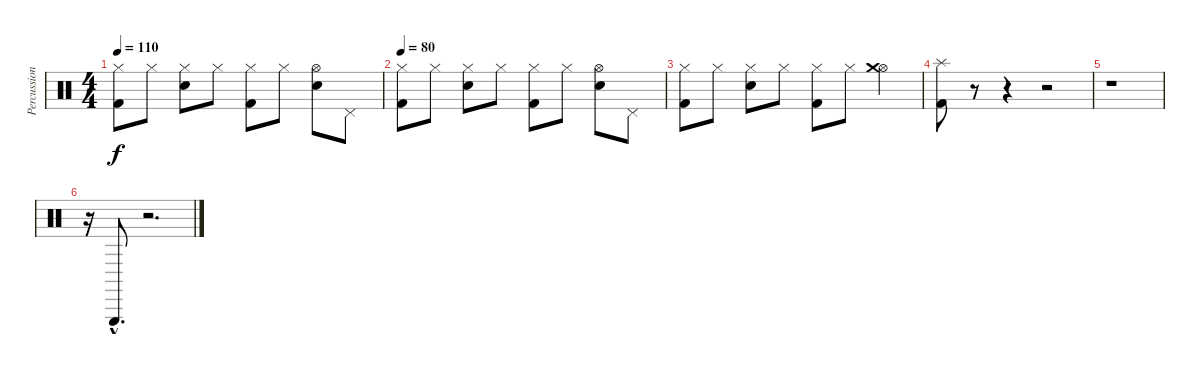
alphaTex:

\track ("Percussion" "Percussion") {instrument percussion}
\staff {score}
\articulation defaults
\ts (4 4)
\tempo 110
\clef neutral
\ks c
("Hi-Hat (closed)" "Kick (hit) 2").8{dy f} "Hi-Hat (closed)".8 ("Hi-Hat (closed)" "Snare (hit) 2").8 "Hi-Hat (closed)".8 ("Hi-Hat (closed)" "Kick (hit) 2").8 "Hi-Hat (closed)".8 ("Hi-Hat (open)" "Snare (hit) 2").8 "Pedal Hi-Hat (hit)".8 |
\tempo 80
("Hi-Hat (closed)" "Kick (hit) 2").8 "Hi-Hat (closed)".8 ("Hi-Hat (closed)" "Snare (hit) 2").8 "Hi-Hat (closed)".8 ("Hi-Hat (closed)" "Kick (hit) 2").8 "Hi-Hat (closed)".8 ("Hi-Hat (open)" "Snare (hit) 2").8 "Pedal Hi-Hat (hit)".8 |
("Hi-Hat (closed)" "Kick (hit) 2").8 "Hi-Hat (closed)".8 ("Hi-Hat (closed)" "Snare (hit) 2").8 "Hi-Hat (closed)".8 ("Hi-Hat (closed)" "Kick (hit) 2").8 "Hi-Hat (closed)".8 ("Hi-Hat (open)" "Crash medium (hit)").4 |
("Splash (hit)" "Kick (hit) 2").8 r.8 r.4 r.2 |
r.1 |
r.16 "Triangle (hit)"{hac}.8{d} r.2{d}
